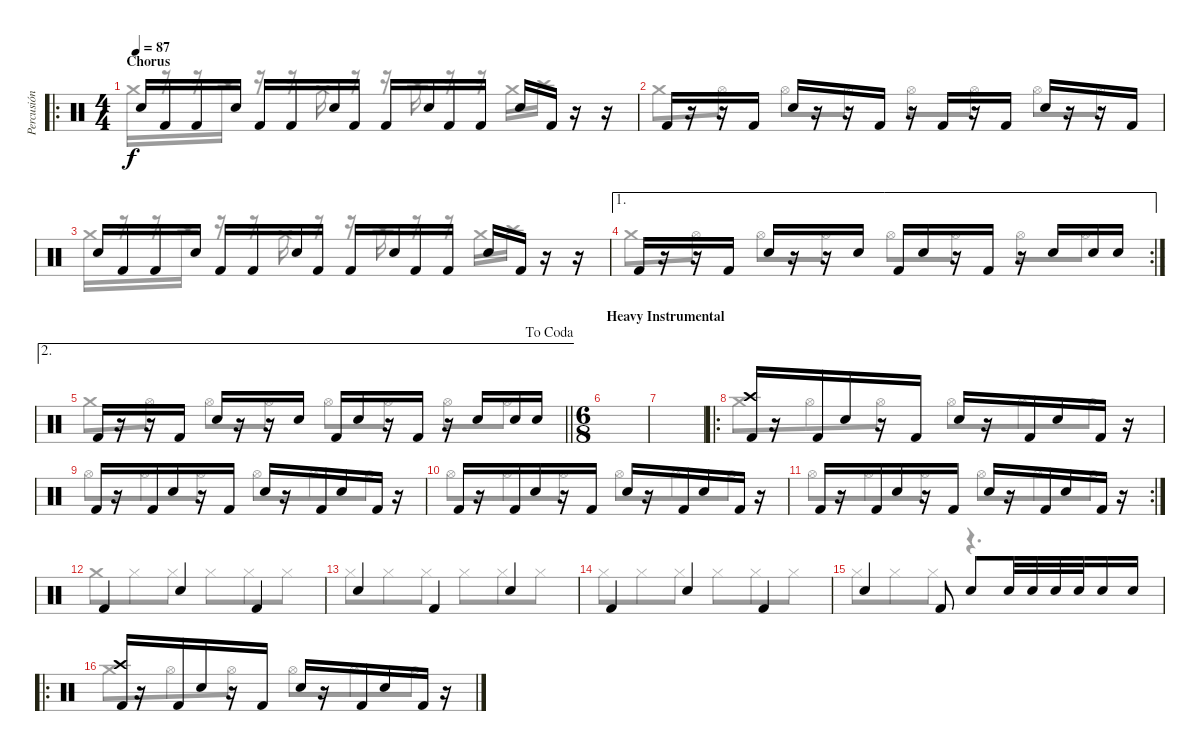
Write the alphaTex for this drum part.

\track ("Percusión" "Percusión") {instrument percussion}
\staff {score}
\articulation defaults
\voice
\ro
\ts (4 4)
\section ("" "Chorus")
\tempo 87
\clef neutral
\ks c "Snare (hit) 2".16{dy f} "Kick (hit) 2".16 "Kick (hit) 2".16 "Snare (hit) 2".16 "Kick (hit) 2".16 "Kick (hit) 2".16 "Snare (hit) 2".16 "Kick (hit) 2".16 "Kick (hit) 2".16 "Snare (hit) 2".16 "Kick (hit) 2".16 "Kick (hit) 2".16 "Snare (hit) 2".16 "Kick (hit) 2".16
r.16 r.16 |
"Kick (hit) 2".16 r.16 r.16 "Kick (hit) 2".16 "Snare (hit) 2".16 r.16 r.16 "Kick (hit) 2".16 r.16 "Kick (hit) 2".16 r.16 "Kick (hit) 2".16 "Snare (hit) 2".16 r.16 r.16 "Kick (hit) 2".16 |
"Snare (hit) 2".16 "Kick (hit) 2".16 "Kick (hit) 2".16 "Snare (hit) 2".16 "Kick (hit) 2".16 "Kick (hit) 2".16 "Snare (hit) 2".16 "Kick (hit) 2".16 "Kick (hit) 2".16 "Snare (hit) 2".16 "Kick (hit) 2".16 "Kick (hit) 2".16 "Snare (hit) 2".16 "Kick (hit) 2".16 r.16 r.16 |
\ae 1
\rc 2 "Kick (hit) 2".16
r.16 r.16 "Kick (hit) 2".16 "Snare (hit) 2".16 r.16 r.16 "Snare (hit) 2".16 "Kick (hit) 2".16 "Snare (hit) 2".16 r.16 "Kick (hit) 2".16 r.16 "Snare (hit) 2".16 "Snare (hit) 2".16 "Snare (hit) 2".16 |
\ae 2
\jump dacoda
\barLineRight lightlight "Kick (hit) 2".16
r.16 r.16 "Kick (hit) 2".16 "Snare (hit) 2".16 r.16 r.16 "Snare (hit) 2".16 "Kick (hit) 2".16 "Snare (hit) 2".16 r.16 "Kick (hit) 2".16 r.16 "Snare (hit) 2".16 "Snare (hit) 2".16 "Snare (hit) 2".16 |
\ts (6 8)
\section ("" "Heavy Instrumental")
|
|
\ro
("Crash high (hit)" "Kick (hit) 2").16 r.16 "Kick (hit) 2".16 "Snare (hit) 2".16 r.16 "Kick (hit) 2".16 "Snare (hit) 2".16 r.16 "Kick (hit) 2".16 "Snare (hit) 2".16 "Kick (hit) 2".16 r.16 |
"Kick (hit) 2".16 r.16 "Kick (hit) 2".16 "Snare (hit) 2".16 r.16 "Kick (hit) 2".16 "Snare (hit) 2".16 r.16 "Kick (hit) 2".16 "Snare (hit) 2".16 "Kick (hit) 2".16 r.16 |
"Kick (hit) 2".16 r.16 "Kick (hit) 2".16 "Snare (hit) 2".16 r.16 "Kick (hit) 2".16 "Snare (hit) 2".16 r.16 "Kick (hit) 2".16 "Snare (hit) 2".16 "Kick (hit) 2".16 r.16 |
\rc 2 "Kick (hit) 2".16
r.16 "Kick (hit) 2".16 "Snare (hit) 2".16 r.16 "Kick (hit) 2".16 "Snare (hit) 2".16 r.16 "Kick (hit) 2".16 "Snare (hit) 2".16 "Kick (hit) 2".16 r.16 |
"Kick (hit) 2".4 "Snare (hit) 2".4 "Kick (hit) 2".4 |
"Snare (hit) 2".4 "Kick (hit) 2".4 "Snare (hit) 2".4 |
"Kick (hit) 2".4 "Snare (hit) 2".4 "Kick (hit) 2".4 |
"Snare (hit) 2".4 "Kick (hit) 2".8 "Snare (hit) 2".8 "Snare (hit) 2".32 "Snare (hit) 2".32 "Snare (hit) 2".32 "Snare (hit) 2".32 "Snare (hit) 2".16 "Snare (hit) 2".16 |
\ro
("Crash high (hit)" "Kick (hit) 2").16 r.16 "Kick (hit) 2".16 "Snare (hit) 2".16 r.16 "Kick (hit) 2".16 "Snare (hit) 2".16 r.16 "Kick (hit) 2".16 "Snare (hit) 2".16 "Kick (hit) 2".16 r.16
\voice
\clef neutral
\ottava regular
\simile none
\ks c "Crash medium (hit)".16{dy f}
r.16 r.16 "Crash high (hit)".16 r.16 r.16 "Crash medium (hit)".16 r.16 r.16 "Crash high (hit)".16 r.16 r.16 "Crash medium (hit)".16 "Crash high (hit)".16 r.16 r.16 |
"Crash medium (hit)".8 "Hi-Hat (open)".8 "Hi-Hat (open)".8 "Hi-Hat (open)".8 "Hi-Hat (open)".8 "Hi-Hat (open)".8 "Hi-Hat (open)".8 "Hi-Hat (open)".8 |
"Crash medium (hit)".16 r.16 r.16 "Crash high (hit)".16 r.16 r.16 "Crash medium (hit)".16 r.16 r.16 "Crash high (hit)".16 r.16 r.16 "Crash medium (hit)".16 "Crash high (hit)".16 r.16 r.16 |
"Crash medium (hit)".8 "Hi-Hat (open)".8 "Hi-Hat (open)".8 "Hi-Hat (open)".8 "Hi-Hat (open)".8 "Hi-Hat (open)".8 "Hi-Hat (open)".8 "Hi-Hat (open)".8 |
\barLineRight lightlight "Crash medium (hit)".8 "Hi-Hat (open)".8 "Hi-Hat (open)".8 "Hi-Hat (open)".8 "Hi-Hat (open)".8 "Hi-Hat (open)".8 "Hi-Hat (open)".8 "Hi-Hat (open)".8
|
|
|
"Crash medium (hit)".8 "Hi-Hat (open)".8 "Hi-Hat (open)".8 "Hi-Hat (open)".8 "Hi-Hat (open)".8 "Hi-Hat (open)".8 |
"Hi-Hat (open)".8 "Hi-Hat (open)".8 "Hi-Hat (open)".8 "Hi-Hat (open)".8 "Hi-Hat (open)".8 "Hi-Hat (open)".8 |
"Hi-Hat (open)".8 "Hi-Hat (open)".8 "Hi-Hat (open)".8 "Hi-Hat (open)".8 "Hi-Hat (open)".8 "Hi-Hat (open)".8 |
"Hi-Hat (open)".8 "Hi-Hat (open)".8 "Hi-Hat (open)".8 "Hi-Hat (open)".8 "Hi-Hat (open)".8 "Hi-Hat (open)".8 |
"Crash medium (hit)".8 "Hi-Hat (closed)".8 "Hi-Hat (closed)".8 "Hi-Hat (closed)".8 "Hi-Hat (closed)".8 "Hi-Hat (closed)".8 |
"Hi-Hat (closed)".8 "Hi-Hat (closed)".8 "Hi-Hat (closed)".8 "Hi-Hat (closed)".8 "Hi-Hat (closed)".8 "Hi-Hat (closed)".8 |
"Hi-Hat (closed)".8 "Hi-Hat (closed)".8 "Hi-Hat (closed)".8 "Hi-Hat (closed)".8 "Hi-Hat (closed)".8 "Hi-Hat (closed)".8 |
"Hi-Hat (closed)".8 "Hi-Hat (closed)".8 "Hi-Hat (closed)".8 r.4{d} |
"Crash medium (hit)".8 "Hi-Hat (open)".8 "Hi-Hat (open)".8 "Hi-Hat (open)".8 "Hi-Hat (open)".8 "Hi-Hat (open)".8
